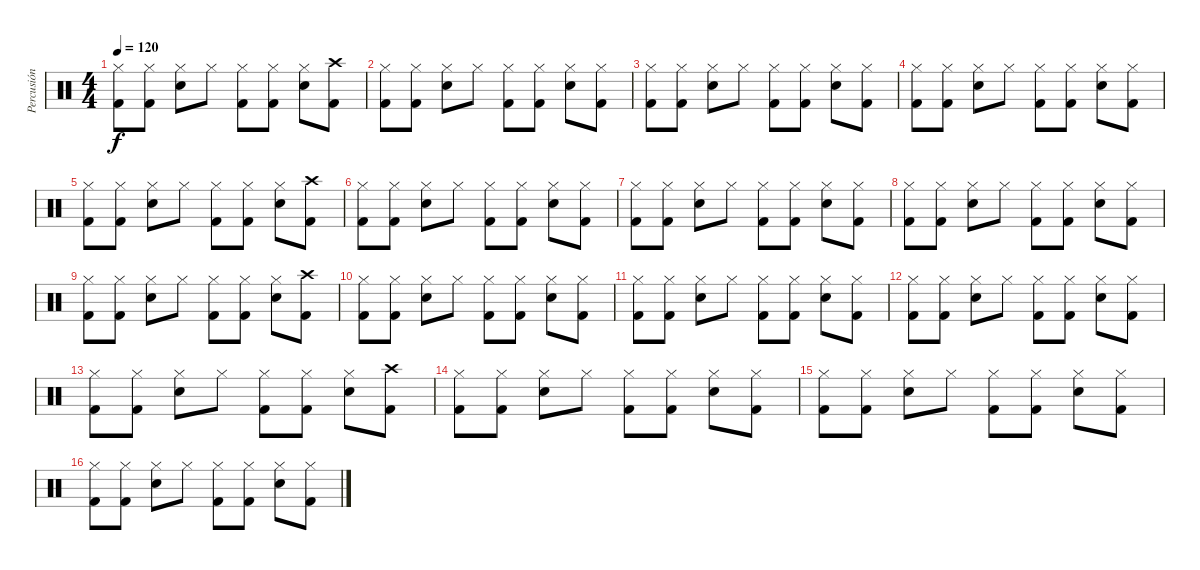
\track ("Percusión" "Percusión") {instrument percussion}
\staff {score}
\articulation defaults
\ts (4 4)
\tempo 120
\clef neutral
\ks c
("Hi-Hat (closed)" "Kick (hit) 2").8{dy f} ("Hi-Hat (closed)" "Kick (hit) 2").8 ("Hi-Hat (closed)" "Snare (hit) 2").8 "Hi-Hat (closed)".8 ("Hi-Hat (closed)" "Kick (hit) 2").8 ("Hi-Hat (closed)" "Kick (hit) 2").8 ("Hi-Hat (closed)" "Snare (hit) 2").8 ("Crash high (hit)" "Kick (hit) 2").8 |
("Hi-Hat (closed)" "Kick (hit) 2").8 ("Hi-Hat (closed)" "Kick (hit) 2").8 ("Hi-Hat (closed)" "Snare (hit) 2").8 "Hi-Hat (closed)".8 ("Hi-Hat (closed)" "Kick (hit) 2").8 ("Hi-Hat (closed)" "Kick (hit) 2").8 ("Hi-Hat (closed)" "Snare (hit) 2").8 ("Hi-Hat (closed)" "Kick (hit) 2").8 |
("Hi-Hat (closed)" "Kick (hit) 2").8 ("Hi-Hat (closed)" "Kick (hit) 2").8 ("Hi-Hat (closed)" "Snare (hit) 2").8 "Hi-Hat (closed)".8 ("Hi-Hat (closed)" "Kick (hit) 2").8 ("Hi-Hat (closed)" "Kick (hit) 2").8 ("Hi-Hat (closed)" "Snare (hit) 2").8 ("Hi-Hat (closed)" "Kick (hit) 2").8 |
("Hi-Hat (closed)" "Kick (hit) 2").8 ("Hi-Hat (closed)" "Kick (hit) 2").8 ("Hi-Hat (closed)" "Snare (hit) 2").8 "Hi-Hat (closed)".8 ("Hi-Hat (closed)" "Kick (hit) 2").8 ("Hi-Hat (closed)" "Kick (hit) 2").8 ("Hi-Hat (closed)" "Snare (hit) 2").8 ("Hi-Hat (closed)" "Kick (hit) 2").8 |
("Hi-Hat (closed)" "Kick (hit) 2").8 ("Hi-Hat (closed)" "Kick (hit) 2").8 ("Hi-Hat (closed)" "Snare (hit) 2").8 "Hi-Hat (closed)".8 ("Hi-Hat (closed)" "Kick (hit) 2").8 ("Hi-Hat (closed)" "Kick (hit) 2").8 ("Hi-Hat (closed)" "Snare (hit) 2").8 ("Crash high (hit)" "Kick (hit) 2").8 |
("Hi-Hat (closed)" "Kick (hit) 2").8 ("Hi-Hat (closed)" "Kick (hit) 2").8 ("Hi-Hat (closed)" "Snare (hit) 2").8 "Hi-Hat (closed)".8 ("Hi-Hat (closed)" "Kick (hit) 2").8 ("Hi-Hat (closed)" "Kick (hit) 2").8 ("Hi-Hat (closed)" "Snare (hit) 2").8 ("Hi-Hat (closed)" "Kick (hit) 2").8 |
("Hi-Hat (closed)" "Kick (hit) 2").8 ("Hi-Hat (closed)" "Kick (hit) 2").8 ("Hi-Hat (closed)" "Snare (hit) 2").8 "Hi-Hat (closed)".8 ("Hi-Hat (closed)" "Kick (hit) 2").8 ("Hi-Hat (closed)" "Kick (hit) 2").8 ("Hi-Hat (closed)" "Snare (hit) 2").8 ("Hi-Hat (closed)" "Kick (hit) 2").8 |
("Hi-Hat (closed)" "Kick (hit) 2").8 ("Hi-Hat (closed)" "Kick (hit) 2").8 ("Hi-Hat (closed)" "Snare (hit) 2").8 "Hi-Hat (closed)".8 ("Hi-Hat (closed)" "Kick (hit) 2").8 ("Hi-Hat (closed)" "Kick (hit) 2").8 ("Hi-Hat (closed)" "Snare (hit) 2").8 ("Hi-Hat (closed)" "Kick (hit) 2").8 |
("Hi-Hat (closed)" "Kick (hit) 2").8 ("Hi-Hat (closed)" "Kick (hit) 2").8 ("Hi-Hat (closed)" "Snare (hit) 2").8 "Hi-Hat (closed)".8 ("Hi-Hat (closed)" "Kick (hit) 2").8 ("Hi-Hat (closed)" "Kick (hit) 2").8 ("Hi-Hat (closed)" "Snare (hit) 2").8 ("Crash high (hit)" "Kick (hit) 2").8 |
("Hi-Hat (closed)" "Kick (hit) 2").8 ("Hi-Hat (closed)" "Kick (hit) 2").8 ("Hi-Hat (closed)" "Snare (hit) 2").8 "Hi-Hat (closed)".8 ("Hi-Hat (closed)" "Kick (hit) 2").8 ("Hi-Hat (closed)" "Kick (hit) 2").8 ("Hi-Hat (closed)" "Snare (hit) 2").8 ("Hi-Hat (closed)" "Kick (hit) 2").8 |
("Hi-Hat (closed)" "Kick (hit) 2").8 ("Hi-Hat (closed)" "Kick (hit) 2").8 ("Hi-Hat (closed)" "Snare (hit) 2").8 "Hi-Hat (closed)".8 ("Hi-Hat (closed)" "Kick (hit) 2").8 ("Hi-Hat (closed)" "Kick (hit) 2").8 ("Hi-Hat (closed)" "Snare (hit) 2").8 ("Hi-Hat (closed)" "Kick (hit) 2").8 |
("Hi-Hat (closed)" "Kick (hit) 2").8 ("Hi-Hat (closed)" "Kick (hit) 2").8 ("Hi-Hat (closed)" "Snare (hit) 2").8 "Hi-Hat (closed)".8 ("Hi-Hat (closed)" "Kick (hit) 2").8 ("Hi-Hat (closed)" "Kick (hit) 2").8 ("Hi-Hat (closed)" "Snare (hit) 2").8 ("Hi-Hat (closed)" "Kick (hit) 2").8 |
("Hi-Hat (closed)" "Kick (hit) 2").8 ("Hi-Hat (closed)" "Kick (hit) 2").8 ("Hi-Hat (closed)" "Snare (hit) 2").8 "Hi-Hat (closed)".8 ("Hi-Hat (closed)" "Kick (hit) 2").8 ("Hi-Hat (closed)" "Kick (hit) 2").8 ("Hi-Hat (closed)" "Snare (hit) 2").8 ("Crash high (hit)" "Kick (hit) 2").8 |
("Hi-Hat (closed)" "Kick (hit) 2").8 ("Hi-Hat (closed)" "Kick (hit) 2").8 ("Hi-Hat (closed)" "Snare (hit) 2").8 "Hi-Hat (closed)".8 ("Hi-Hat (closed)" "Kick (hit) 2").8 ("Hi-Hat (closed)" "Kick (hit) 2").8 ("Hi-Hat (closed)" "Snare (hit) 2").8 ("Hi-Hat (closed)" "Kick (hit) 2").8 |
("Hi-Hat (closed)" "Kick (hit) 2").8 ("Hi-Hat (closed)" "Kick (hit) 2").8 ("Hi-Hat (closed)" "Snare (hit) 2").8 "Hi-Hat (closed)".8 ("Hi-Hat (closed)" "Kick (hit) 2").8 ("Hi-Hat (closed)" "Kick (hit) 2").8 ("Hi-Hat (closed)" "Snare (hit) 2").8 ("Hi-Hat (closed)" "Kick (hit) 2").8 |
("Hi-Hat (closed)" "Kick (hit) 2").8 ("Hi-Hat (closed)" "Kick (hit) 2").8 ("Hi-Hat (closed)" "Snare (hit) 2").8 "Hi-Hat (closed)".8 ("Hi-Hat (closed)" "Kick (hit) 2").8 ("Hi-Hat (closed)" "Kick (hit) 2").8 ("Hi-Hat (closed)" "Snare (hit) 2").8 ("Hi-Hat (closed)" "Kick (hit) 2").8
